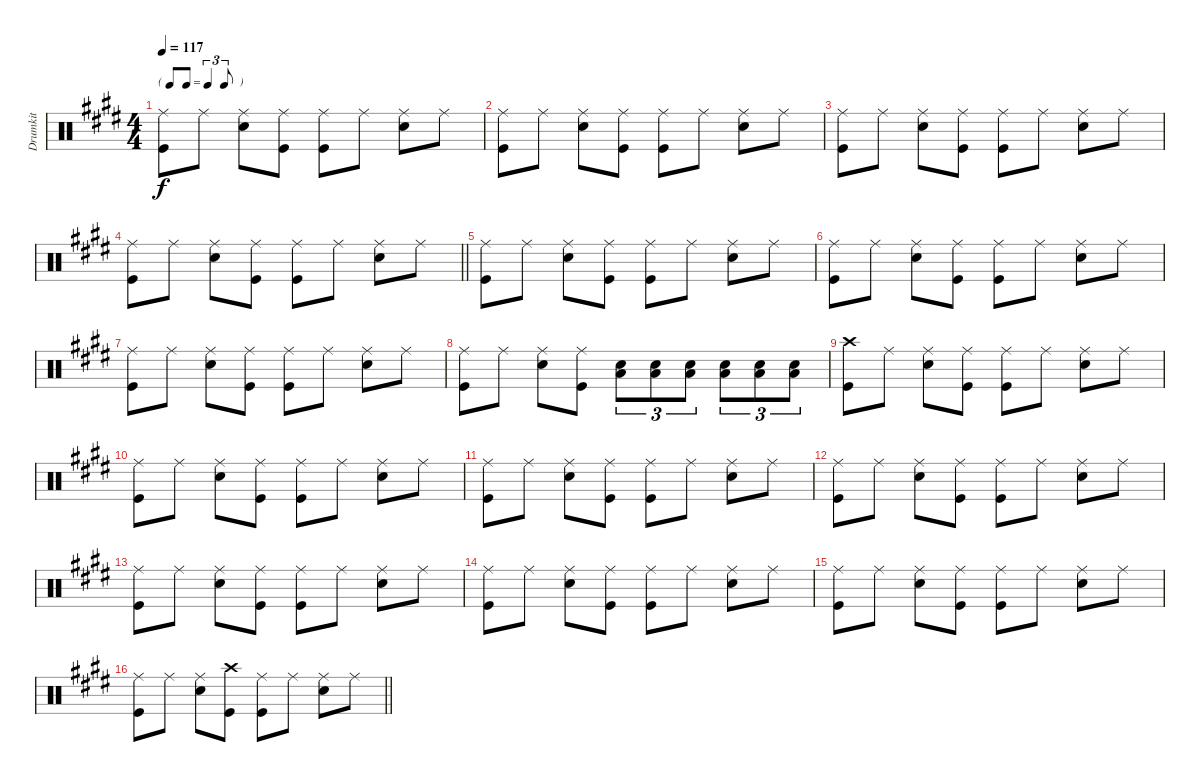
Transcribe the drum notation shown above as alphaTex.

\track ("Drumkit" "Drumkit") {instrument percussion}
\staff {score}
\articulation defaults
\ts (4 4)
\tf triplet8th
\tempo 117
\clef neutral
\ks e
("Ride (middle)" "Kick (hit)").8{dy f} "Ride (middle)".8 ("Ride (middle)" "Snare (hit) 2").8 ("Ride (middle)" "Kick (hit)").8 ("Ride (middle)" "Kick (hit)").8 "Ride (middle)".8 ("Ride (middle)" "Snare (hit) 2").8 "Ride (middle)".8 |
("Ride (middle)" "Kick (hit)").8 "Ride (middle)".8 ("Ride (middle)" "Snare (hit) 2").8 ("Ride (middle)" "Kick (hit)").8 ("Ride (middle)" "Kick (hit)").8 "Ride (middle)".8 ("Ride (middle)" "Snare (hit) 2").8 "Ride (middle)".8 |
("Ride (middle)" "Kick (hit)").8 "Ride (middle)".8 ("Ride (middle)" "Snare (hit) 2").8 ("Ride (middle)" "Kick (hit)").8 ("Ride (middle)" "Kick (hit)").8 "Ride (middle)".8 ("Ride (middle)" "Snare (hit) 2").8 "Ride (middle)".8 |
\barLineRight lightlight
("Ride (middle)" "Kick (hit)").8 "Ride (middle)".8 ("Ride (middle)" "Snare (hit) 2").8 ("Ride (middle)" "Kick (hit)").8 ("Ride (middle)" "Kick (hit)").8 "Ride (middle)".8 ("Ride (middle)" "Snare (hit) 2").8 "Ride (middle)".8 |
("Ride (middle)" "Kick (hit)").8 "Ride (middle)".8 ("Ride (middle)" "Snare (hit) 2").8 ("Ride (middle)" "Kick (hit)").8 ("Ride (middle)" "Kick (hit)").8 "Ride (middle)".8 ("Ride (middle)" "Snare (hit) 2").8 "Ride (middle)".8 |
("Ride (middle)" "Kick (hit)").8 "Ride (middle)".8 ("Ride (middle)" "Snare (hit) 2").8 ("Ride (middle)" "Kick (hit)").8 ("Ride (middle)" "Kick (hit)").8 "Ride (middle)".8 ("Ride (middle)" "Snare (hit) 2").8 "Ride (middle)".8 |
("Ride (middle)" "Kick (hit)").8 "Ride (middle)".8 ("Ride (middle)" "Snare (hit) 2").8 ("Ride (middle)" "Kick (hit)").8 ("Ride (middle)" "Kick (hit)").8 "Ride (middle)".8 ("Ride (middle)" "Snare (hit) 2").8 "Ride (middle)".8 |
("Ride (middle)" "Kick (hit)").8 "Ride (middle)".8 ("Ride (middle)" "Snare (hit) 2").8 ("Ride (middle)" "Kick (hit)").8 ("Snare (hit) 2" "Low Floor Tom (hit)").8{tu (3 2)} ("Snare (hit) 2" "Low Floor Tom (hit)").8{tu (3 2)} ("Snare (hit) 2" "Low Floor Tom (hit)").8{tu (3 2)} ("Snare (hit) 2" "Low Floor Tom (hit)").8{tu (3 2)} ("Snare (hit) 2" "Low Floor Tom (hit)").8{tu (3 2)} ("Snare (hit) 2" "Low Floor Tom (hit)").8{tu (3 2)} |
("Crash high (hit)" "Kick (hit)").8 "Ride (middle)".8 ("Ride (middle)" "Snare (hit) 2").8 ("Ride (middle)" "Kick (hit)").8 ("Ride (middle)" "Kick (hit)").8 "Ride (middle)".8 ("Ride (middle)" "Snare (hit) 2").8 "Ride (middle)".8 |
("Ride (middle)" "Kick (hit)").8 "Ride (middle)".8 ("Ride (middle)" "Snare (hit) 2").8 ("Ride (middle)" "Kick (hit)").8 ("Ride (middle)" "Kick (hit)").8 "Ride (middle)".8 ("Ride (middle)" "Snare (hit) 2").8 "Ride (middle)".8 |
("Ride (middle)" "Kick (hit)").8 "Ride (middle)".8 ("Ride (middle)" "Snare (hit) 2").8 ("Ride (middle)" "Kick (hit)").8 ("Ride (middle)" "Kick (hit)").8 "Ride (middle)".8 ("Ride (middle)" "Snare (hit) 2").8 "Ride (middle)".8 |
("Ride (middle)" "Kick (hit)").8 "Ride (middle)".8 ("Ride (middle)" "Snare (hit) 2").8 ("Ride (middle)" "Kick (hit)").8 ("Ride (middle)" "Kick (hit)").8 "Ride (middle)".8 ("Ride (middle)" "Snare (hit) 2").8 "Ride (middle)".8 |
("Ride (middle)" "Kick (hit)").8 "Ride (middle)".8 ("Ride (middle)" "Snare (hit) 2").8 ("Ride (middle)" "Kick (hit)").8 ("Ride (middle)" "Kick (hit)").8 "Ride (middle)".8 ("Ride (middle)" "Snare (hit) 2").8 "Ride (middle)".8 |
("Ride (middle)" "Kick (hit)").8 "Ride (middle)".8 ("Ride (middle)" "Snare (hit) 2").8 ("Ride (middle)" "Kick (hit)").8 ("Ride (middle)" "Kick (hit)").8 "Ride (middle)".8 ("Ride (middle)" "Snare (hit) 2").8 "Ride (middle)".8 |
("Ride (middle)" "Kick (hit)").8 "Ride (middle)".8 ("Ride (middle)" "Snare (hit) 2").8 ("Ride (middle)" "Kick (hit)").8 ("Ride (middle)" "Kick (hit)").8 "Ride (middle)".8 ("Ride (middle)" "Snare (hit) 2").8 "Ride (middle)".8 |
\barLineRight lightlight
("Ride (middle)" "Kick (hit)").8 "Ride (middle)".8 ("Ride (middle)" "Snare (hit) 2").8 ("Crash high (hit)" "Kick (hit)").8 ("Ride (middle)" "Kick (hit)").8 "Ride (middle)".8 ("Ride (middle)" "Snare (hit) 2").8 "Ride (middle)".8
